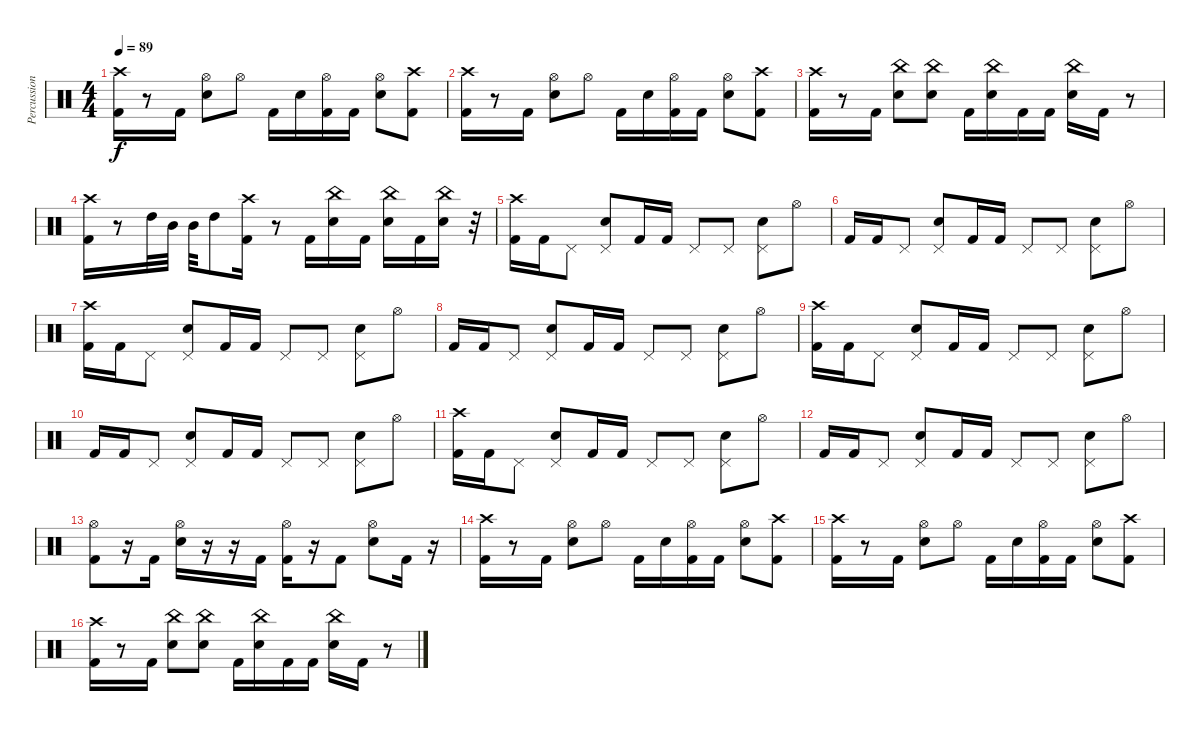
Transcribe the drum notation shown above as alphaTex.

\track ("Percussion" "Percussion") {instrument percussion}
\staff {score}
\articulation defaults
\ts (4 4)
\tempo 89
\clef neutral
\ks c
("Crash high (hit)" "Kick (hit) 2").16{dy f} r.8 "Kick (hit) 2".16 ("Hi-Hat (open)" "Electric Snare (hit)").8 "Hi-Hat (open)".8 "Kick (hit) 2".16 "Electric Snare (hit)".16 ("Hi-Hat (open)" "Kick (hit) 2").16 "Kick (hit) 2".16 ("Hi-Hat (open)" "Electric Snare (hit)").8 ("Crash high (hit)" "Kick (hit) 2").8 |
("Crash high (hit)" "Kick (hit) 2").16 r.8 "Kick (hit) 2".16 ("Hi-Hat (open)" "Electric Snare (hit)").8 "Hi-Hat (open)".8 "Kick (hit) 2".16 "Electric Snare (hit)".16 ("Hi-Hat (open)" "Kick (hit) 2").16 "Kick (hit) 2".16 ("Hi-Hat (open)" "Electric Snare (hit)").8 ("Crash high (hit)" "Kick (hit) 2").8 |
("Crash high (hit)" "Kick (hit) 2").16 r.8 "Kick (hit) 2".16 ("China (hit)" "Electric Snare (hit)").8 ("China (hit)" "Electric Snare (hit)").8 "Kick (hit) 2".16 ("China (hit)" "Electric Snare (hit)").16 "Kick (hit) 2".16 "Kick (hit) 2".16 ("China (hit)" "Electric Snare (hit)").16 "Kick (hit) 2".16 r.8 |
("Crash high (hit)" "Kick (hit) 2").16 r.8 "High Tom (hit)".32 "Mid Tom (hit)".32 "Mid Tom (hit)".32 "High Tom (hit)".8 ("Crash high (hit)" "Kick (hit) 2").16 r.8 "Kick (hit) 2".16 ("China (hit)" "Electric Snare (hit)").16 "Kick (hit) 2".16 ("China (hit)" "Electric Snare (hit)").16 "Kick (hit) 2".16 ("China (hit)" "Electric Snare (hit)").16 r.32 |
("Crash high (hit)" "Kick (hit) 2").16 "Kick (hit) 2".16 "Pedal Hi-Hat (hit)".8 ("Pedal Hi-Hat (hit)" "Electric Snare (hit)").8 "Kick (hit) 2".16 "Kick (hit) 2".16 "Pedal Hi-Hat (hit)".8 "Pedal Hi-Hat (hit)".8 ("Pedal Hi-Hat (hit)" "Electric Snare (hit)").8 "Hi-Hat (open)".8 |
"Kick (hit) 2".16 "Kick (hit) 2".16 "Pedal Hi-Hat (hit)".8 ("Pedal Hi-Hat (hit)" "Electric Snare (hit)").8 "Kick (hit) 2".16 "Kick (hit) 2".16 "Pedal Hi-Hat (hit)".8 "Pedal Hi-Hat (hit)".8 ("Pedal Hi-Hat (hit)" "Electric Snare (hit)").8 "Hi-Hat (open)".8 |
("Crash high (hit)" "Kick (hit) 2").16 "Kick (hit) 2".16 "Pedal Hi-Hat (hit)".8 ("Pedal Hi-Hat (hit)" "Electric Snare (hit)").8 "Kick (hit) 2".16 "Kick (hit) 2".16 "Pedal Hi-Hat (hit)".8 "Pedal Hi-Hat (hit)".8 ("Pedal Hi-Hat (hit)" "Electric Snare (hit)").8 "Hi-Hat (open)".8 |
"Kick (hit) 2".16 "Kick (hit) 2".16 "Pedal Hi-Hat (hit)".8 ("Pedal Hi-Hat (hit)" "Electric Snare (hit)").8 "Kick (hit) 2".16 "Kick (hit) 2".16 "Pedal Hi-Hat (hit)".8 "Pedal Hi-Hat (hit)".8 ("Pedal Hi-Hat (hit)" "Electric Snare (hit)").8 "Hi-Hat (open)".8 |
("Crash high (hit)" "Kick (hit) 2").16 "Kick (hit) 2".16 "Pedal Hi-Hat (hit)".8 ("Pedal Hi-Hat (hit)" "Electric Snare (hit)").8 "Kick (hit) 2".16 "Kick (hit) 2".16 "Pedal Hi-Hat (hit)".8 "Pedal Hi-Hat (hit)".8 ("Pedal Hi-Hat (hit)" "Electric Snare (hit)").8 "Hi-Hat (open)".8 |
"Kick (hit) 2".16 "Kick (hit) 2".16 "Pedal Hi-Hat (hit)".8 ("Pedal Hi-Hat (hit)" "Electric Snare (hit)").8 "Kick (hit) 2".16 "Kick (hit) 2".16 "Pedal Hi-Hat (hit)".8 "Pedal Hi-Hat (hit)".8 ("Pedal Hi-Hat (hit)" "Electric Snare (hit)").8 "Hi-Hat (open)".8 |
("Crash high (hit)" "Kick (hit) 2").16 "Kick (hit) 2".16 "Pedal Hi-Hat (hit)".8 ("Pedal Hi-Hat (hit)" "Electric Snare (hit)").8 "Kick (hit) 2".16 "Kick (hit) 2".16 "Pedal Hi-Hat (hit)".8 "Pedal Hi-Hat (hit)".8 ("Pedal Hi-Hat (hit)" "Electric Snare (hit)").8 "Hi-Hat (open)".8 |
"Kick (hit) 2".16 "Kick (hit) 2".16 "Pedal Hi-Hat (hit)".8 ("Pedal Hi-Hat (hit)" "Electric Snare (hit)").8 "Kick (hit) 2".16 "Kick (hit) 2".16 "Pedal Hi-Hat (hit)".8 "Pedal Hi-Hat (hit)".8 ("Pedal Hi-Hat (hit)" "Electric Snare (hit)").8 "Hi-Hat (open)".8 |
("Hi-Hat (open)" "Kick (hit) 2").8 r.16 "Kick (hit) 2".16 ("Hi-Hat (open)" "Electric Snare (hit)").16 r.16 r.16 "Kick (hit) 2".16 ("Hi-Hat (open)" "Kick (hit) 2").16 r.16 "Kick (hit) 2".8 ("Hi-Hat (open)" "Electric Snare (hit)").8 "Kick (hit) 2".16 r.16 |
("Crash high (hit)" "Kick (hit) 2").16 r.8 "Kick (hit) 2".16 ("Hi-Hat (open)" "Electric Snare (hit)").8 "Hi-Hat (open)".8 "Kick (hit) 2".16 "Electric Snare (hit)".16 ("Hi-Hat (open)" "Kick (hit) 2").16 "Kick (hit) 2".16 ("Hi-Hat (open)" "Electric Snare (hit)").8 ("Crash high (hit)" "Kick (hit) 2").8 |
("Crash high (hit)" "Kick (hit) 2").16 r.8 "Kick (hit) 2".16 ("Hi-Hat (open)" "Electric Snare (hit)").8 "Hi-Hat (open)".8 "Kick (hit) 2".16 "Electric Snare (hit)".16 ("Hi-Hat (open)" "Kick (hit) 2").16 "Kick (hit) 2".16 ("Hi-Hat (open)" "Electric Snare (hit)").8 ("Crash high (hit)" "Kick (hit) 2").8 |
("Crash high (hit)" "Kick (hit) 2").16 r.8 "Kick (hit) 2".16 ("China (hit)" "Electric Snare (hit)").8 ("China (hit)" "Electric Snare (hit)").8 "Kick (hit) 2".16 ("China (hit)" "Electric Snare (hit)").16 "Kick (hit) 2".16 "Kick (hit) 2".16 ("China (hit)" "Electric Snare (hit)").16 "Kick (hit) 2".16 r.8
